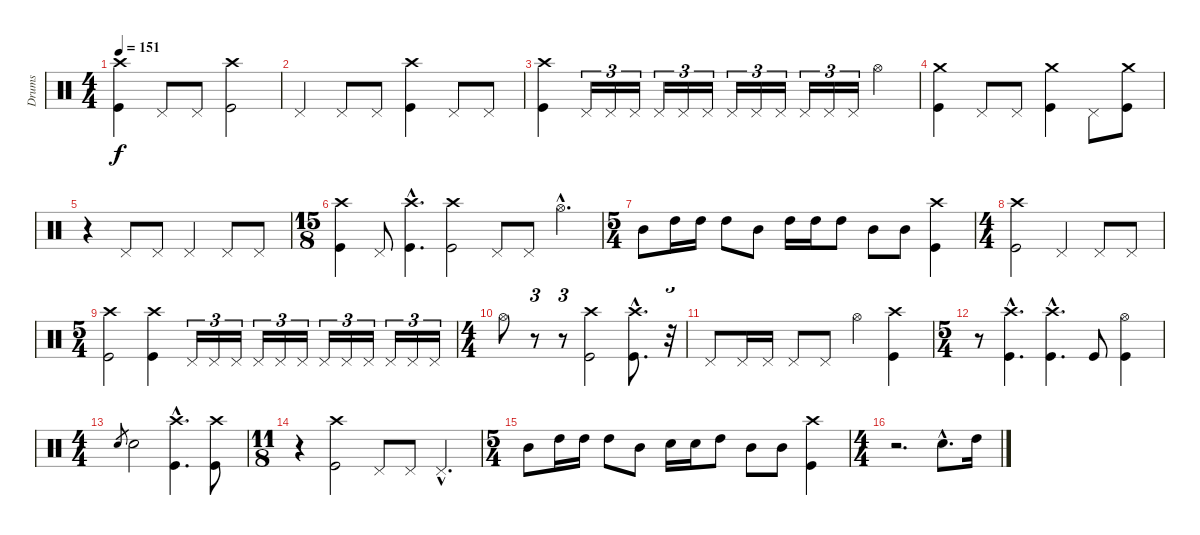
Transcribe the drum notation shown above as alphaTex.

\track ("Drums" "Drums") {instrument percussion}
\staff {score}
\articulation defaults
\ts (4 4)
\tempo 151
\clef neutral
\ks c
("Crash high (hit)" "Kick (hit)").4{dy f} "Pedal Hi-Hat (hit)".8 "Pedal Hi-Hat (hit)".8 ("Crash high (hit)" "Kick (hit)").2 |
"Pedal Hi-Hat (hit)".4 "Pedal Hi-Hat (hit)".8 "Pedal Hi-Hat (hit)".8 ("Crash high (hit)" "Kick (hit)").4 "Pedal Hi-Hat (hit)".8 "Pedal Hi-Hat (hit)".8 |
("Crash high (hit)" "Kick (hit)").4 "Pedal Hi-Hat (hit)".16{tu (3 2)} "Pedal Hi-Hat (hit)".16{tu (3 2)} "Pedal Hi-Hat (hit)".16{tu (3 2)} "Pedal Hi-Hat (hit)".16{tu (3 2)} "Pedal Hi-Hat (hit)".16{tu (3 2)} "Pedal Hi-Hat (hit)".16{tu (3 2)} "Pedal Hi-Hat (hit)".16{tu (3 2)} "Pedal Hi-Hat (hit)".16{tu (3 2)} "Pedal Hi-Hat (hit)".16{tu (3 2)} "Pedal Hi-Hat (hit)".16{tu (3 2)} "Pedal Hi-Hat (hit)".16{tu (3 2)} "Pedal Hi-Hat (hit)".16{tu (3 2)} "Hi-Hat (open)".4 |
("Crash medium (hit)" "Kick (hit)").4 "Pedal Hi-Hat (hit)".8 "Pedal Hi-Hat (hit)".8 ("Crash medium (hit)" "Kick (hit)").4 "Pedal Hi-Hat (hit)".8 ("Crash medium (hit)" "Kick (hit)").8 |
r.4 "Pedal Hi-Hat (hit)".8 "Pedal Hi-Hat (hit)".8 "Pedal Hi-Hat (hit)".4 "Pedal Hi-Hat (hit)".8 "Pedal Hi-Hat (hit)".8 |
\ts (15 8)
("Crash high (hit)" "Kick (hit)").4 "Pedal Hi-Hat (hit)".8 ("Crash high (hit)"{hac} "Kick (hit)"{hac}).4{d} ("Crash high (hit)" "Kick (hit)").2 "Pedal Hi-Hat (hit)".8 "Pedal Hi-Hat (hit)".8 "Hi-Hat (open)"{hac}.4{d} |
\ts (5 4)
"Mid Tom (hit)".8 "High Tom (hit)".16 "High Tom (hit)".16 "High Tom (hit)".8 "Mid Tom (hit)".8 "High Tom (hit)".16 "High Tom (hit)".16 "High Tom (hit)".8 "Mid Tom (hit)".8 "Mid Tom (hit)".8 ("Crash high (hit)" "Kick (hit)").4 |
\ts (4 4)
("Crash high (hit)" "Kick (hit)").2 "Pedal Hi-Hat (hit)".4 "Pedal Hi-Hat (hit)".8 "Pedal Hi-Hat (hit)".8 |
\ts (5 4)
("Crash high (hit)" "Kick (hit)").2 ("Crash high (hit)" "Kick (hit)").4 "Pedal Hi-Hat (hit)".16{tu (3 2)} "Pedal Hi-Hat (hit)".16{tu (3 2)} "Pedal Hi-Hat (hit)".16{tu (3 2)} "Pedal Hi-Hat (hit)".16{tu (3 2)} "Pedal Hi-Hat (hit)".16{tu (3 2)} "Pedal Hi-Hat (hit)".16{tu (3 2)} "Pedal Hi-Hat (hit)".16{tu (3 2)} "Pedal Hi-Hat (hit)".16{tu (3 2)} "Pedal Hi-Hat (hit)".16{tu (3 2)} "Pedal Hi-Hat (hit)".16{tu (3 2)} "Pedal Hi-Hat (hit)".16{tu (3 2)} "Pedal Hi-Hat (hit)".16{tu (3 2)} |
\ts (4 4)
"Hi-Hat (open)".8 r.8{tu (3 2)} r.8{tu (3 2)} ("Crash high (hit)" "Kick (hit)").2 ("Crash high (hit)"{hac} "Kick (hit)"{hac}).8{d} r.32{tu (3 2)} |
"Pedal Hi-Hat (hit)".8 "Pedal Hi-Hat (hit)".16 "Pedal Hi-Hat (hit)".16 "Pedal Hi-Hat (hit)".8 "Pedal Hi-Hat (hit)".8 "Hi-Hat (open)".4 ("Crash high (hit)" "Kick (hit)").4 |
\ts (5 4)
r.8 ("Crash high (hit)"{hac} "Kick (hit)"{hac}).4{d} ("Crash high (hit)"{hac} "Kick (hit)"{hac}).4{d} "Kick (hit)".8 ("Hi-Hat (open)" "Kick (hit)").4 |
\ts (4 4)
"Snare (hit) 2".8{gr} "Snare (hit) 2".2 ("Crash high (hit)"{hac} "Kick (hit)"{hac}).4{d} ("Crash high (hit)" "Kick (hit)").8 |
\ts (11 8)
r.4 ("Crash high (hit)" "Kick (hit)").2 "Pedal Hi-Hat (hit)".8 "Pedal Hi-Hat (hit)".8 "Pedal Hi-Hat (hit)"{hac}.4{d} |
\ts (5 4)
"Mid Tom (hit)".8 "High Tom (hit)".16 "High Tom (hit)".16 "High Tom (hit)".8 "Mid Tom (hit)".8 "Snare (hit) 2".16 "Snare (hit) 2".16 "High Tom (hit)".8 "Mid Tom (hit)".8 "Mid Tom (hit)".8 ("Crash high (hit)" "Kick (hit)").4 |
\ts (4 4)
r.2{d} "Snare (hit) 2"{hac}.8{d} "High Tom (hit)".16
